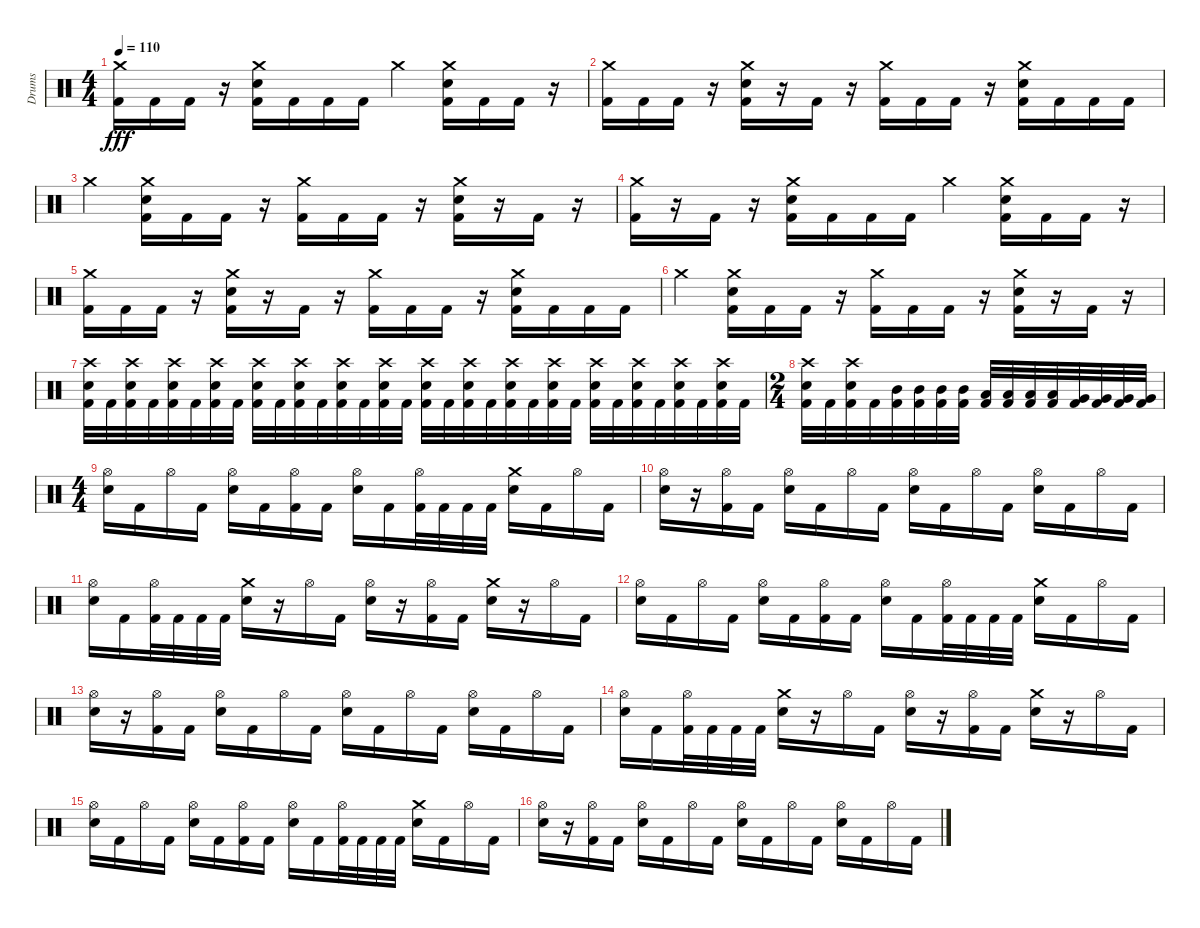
\track ("Drums" "Drums") {instrument percussion}
\staff {score}
\articulation defaults
\ts (4 4)
\tempo 110
\clef neutral
\ks c
("Crash medium (hit)" "Kick (hit) 2").16{dy fff} "Kick (hit) 2".16 "Kick (hit) 2".16 r.16 ("Crash medium (hit)" "Snare (hit) 2" "Kick (hit) 2").16 "Kick (hit) 2".16 "Kick (hit) 2".16 "Kick (hit) 2".16 "Crash medium (hit)".4 ("Crash medium (hit)" "Snare (hit) 2" "Kick (hit) 2").16 "Kick (hit) 2".16 "Kick (hit) 2".16 r.16 |
("Crash medium (hit)" "Kick (hit) 2").16 "Kick (hit) 2".16 "Kick (hit) 2".16 r.16 ("Crash medium (hit)" "Snare (hit) 2" "Kick (hit) 2").16 r.16 "Kick (hit) 2".16 r.16 ("Crash medium (hit)" "Kick (hit) 2").16 "Kick (hit) 2".16 "Kick (hit) 2".16 r.16 ("Crash medium (hit)" "Snare (hit) 2" "Kick (hit) 2").16 "Kick (hit) 2".16 "Kick (hit) 2".16 "Kick (hit) 2".16 |
"Crash medium (hit)".4 ("Crash medium (hit)" "Snare (hit) 2" "Kick (hit) 2").16 "Kick (hit) 2".16 "Kick (hit) 2".16 r.16 ("Crash medium (hit)" "Kick (hit) 2").16 "Kick (hit) 2".16 "Kick (hit) 2".16 r.16 ("Crash medium (hit)" "Snare (hit) 2" "Kick (hit) 2").16 r.16 "Kick (hit) 2".16 r.16 |
("Crash medium (hit)" "Kick (hit) 2").16 r.16 "Kick (hit) 2".16 r.16 ("Crash medium (hit)" "Snare (hit) 2" "Kick (hit) 2").16 "Kick (hit) 2".16 "Kick (hit) 2".16 "Kick (hit) 2".16 "Crash medium (hit)".4 ("Crash medium (hit)" "Snare (hit) 2" "Kick (hit) 2").16 "Kick (hit) 2".16 "Kick (hit) 2".16 r.16 |
("Crash medium (hit)" "Kick (hit) 2").16 "Kick (hit) 2".16 "Kick (hit) 2".16 r.16 ("Crash medium (hit)" "Snare (hit) 2" "Kick (hit) 2").16 r.16 "Kick (hit) 2".16 r.16 ("Crash medium (hit)" "Kick (hit) 2").16 "Kick (hit) 2".16 "Kick (hit) 2".16 r.16 ("Crash medium (hit)" "Snare (hit) 2" "Kick (hit) 2").16 "Kick (hit) 2".16 "Kick (hit) 2".16 "Kick (hit) 2".16 |
"Crash medium (hit)".4 ("Crash medium (hit)" "Snare (hit) 2" "Kick (hit) 2").16 "Kick (hit) 2".16 "Kick (hit) 2".16 r.16 ("Crash medium (hit)" "Kick (hit) 2").16 "Kick (hit) 2".16 "Kick (hit) 2".16 r.16 ("Crash medium (hit)" "Snare (hit) 2" "Kick (hit) 2").16 r.16 "Kick (hit) 2".16 r.16 |
("Crash high (hit)" "Snare (hit) 2" "Kick (hit) 2").32 "Kick (hit) 2".32 ("Crash high (hit)" "Snare (hit) 2" "Kick (hit) 2").32 "Kick (hit) 2".32 ("Crash high (hit)" "Snare (hit) 2" "Kick (hit) 2").32 "Kick (hit) 2".32 ("Crash high (hit)" "Snare (hit) 2" "Kick (hit) 2").32 "Kick (hit) 2".32 ("Crash high (hit)" "Snare (hit) 2" "Kick (hit) 2").32 "Kick (hit) 2".32 ("Crash high (hit)" "Snare (hit) 2" "Kick (hit) 2").32 "Kick (hit) 2".32 ("Crash high (hit)" "Snare (hit) 2" "Kick (hit) 2").32 "Kick (hit) 2".32 ("Crash high (hit)" "Snare (hit) 2" "Kick (hit) 2").32 "Kick (hit) 2".32 ("Crash high (hit)" "Snare (hit) 2" "Kick (hit) 2").32 "Kick (hit) 2".32 ("Crash high (hit)" "Snare (hit) 2" "Kick (hit) 2").32 "Kick (hit) 2".32 ("Crash high (hit)" "Snare (hit) 2" "Kick (hit) 2").32 "Kick (hit) 2".32 ("Crash high (hit)" "Snare (hit) 2" "Kick (hit) 2").32 "Kick (hit) 2".32 ("Crash high (hit)" "Snare (hit) 2" "Kick (hit) 2").32 "Kick (hit) 2".32 ("Crash high (hit)" "Snare (hit) 2" "Kick (hit) 2").32 "Kick (hit) 2".32 ("Crash high (hit)" "Snare (hit) 2" "Kick (hit) 2").32 "Kick (hit) 2".32 ("Crash high (hit)" "Snare (hit) 2" "Kick (hit) 2").32 "Kick (hit) 2".32 |
\ts (2 4)
("Crash high (hit)" "Snare (hit) 2" "Kick (hit) 2").32 "Kick (hit) 2".32 ("Crash high (hit)" "Snare (hit) 2" "Kick (hit) 2").32 "Kick (hit) 2".32 ("Mid Tom (hit)" "Kick (hit) 2").32 ("Mid Tom (hit)" "Kick (hit) 2").32 ("Mid Tom (hit)" "Kick (hit) 2").32 ("Mid Tom (hit)" "Kick (hit) 2").32 ("Low Tom (hit)" "Kick (hit) 2").32 ("Low Tom (hit)" "Kick (hit) 2").32 ("Low Tom (hit)" "Kick (hit) 2").32 ("Low Tom (hit)" "Kick (hit) 2").32 ("Very Low Tom (hit)" "Kick (hit) 2").32 ("Very Low Tom (hit)" "Kick (hit) 2").32 ("Very Low Tom (hit)" "Kick (hit) 2").32 ("Very Low Tom (hit)" "Kick (hit) 2").32 |
\ts (4 4)
("Hi-Hat (open)" "Snare (hit) 2").16 "Kick (hit) 2".16 "Hi-Hat (open)".16 "Kick (hit) 2".16 ("Hi-Hat (open)" "Snare (hit) 2").16 "Kick (hit) 2".16 ("Hi-Hat (open)" "Kick (hit) 2").16 "Kick (hit) 2".16 ("Hi-Hat (open)" "Snare (hit) 2").16 "Kick (hit) 2".16 ("Hi-Hat (open)" "Kick (hit) 2").32 "Kick (hit) 2".32 "Kick (hit) 2".32 "Kick (hit) 2".32 ("Crash medium (hit)" "Snare (hit) 2").16 "Kick (hit) 2".16 "Hi-Hat (open)".16 "Kick (hit) 2".16 |
("Hi-Hat (open)" "Snare (hit) 2").16 r.16 ("Hi-Hat (open)" "Kick (hit) 2").16 "Kick (hit) 2".16 ("Hi-Hat (open)" "Snare (hit) 2").16 "Kick (hit) 2".16 "Hi-Hat (open)".16 "Kick (hit) 2".16 ("Hi-Hat (open)" "Snare (hit) 2").16 "Kick (hit) 2".16 "Hi-Hat (open)".16 "Kick (hit) 2".16 ("Hi-Hat (open)" "Snare (hit) 2").16 "Kick (hit) 2".16 "Hi-Hat (open)".16 "Kick (hit) 2".16 |
("Hi-Hat (open)" "Snare (hit) 2").16 "Kick (hit) 2".16 ("Hi-Hat (open)" "Kick (hit) 2").32 "Kick (hit) 2".32 "Kick (hit) 2".32 "Kick (hit) 2".32 ("Crash medium (hit)" "Snare (hit) 2").16 r.16 "Hi-Hat (open)".16 "Kick (hit) 2".16 ("Hi-Hat (open)" "Snare (hit) 2").16 r.16 ("Hi-Hat (open)" "Kick (hit) 2").16 "Kick (hit) 2".16 ("Crash medium (hit)" "Snare (hit) 2").16 r.16 "Hi-Hat (open)".16 "Kick (hit) 2".16 |
("Hi-Hat (open)" "Snare (hit) 2").16 "Kick (hit) 2".16 "Hi-Hat (open)".16 "Kick (hit) 2".16 ("Hi-Hat (open)" "Snare (hit) 2").16 "Kick (hit) 2".16 ("Hi-Hat (open)" "Kick (hit) 2").16 "Kick (hit) 2".16 ("Hi-Hat (open)" "Snare (hit) 2").16 "Kick (hit) 2".16 ("Hi-Hat (open)" "Kick (hit) 2").32 "Kick (hit) 2".32 "Kick (hit) 2".32 "Kick (hit) 2".32 ("Crash medium (hit)" "Snare (hit) 2").16 "Kick (hit) 2".16 "Hi-Hat (open)".16 "Kick (hit) 2".16 |
("Hi-Hat (open)" "Snare (hit) 2").16 r.16 ("Hi-Hat (open)" "Kick (hit) 2").16 "Kick (hit) 2".16 ("Hi-Hat (open)" "Snare (hit) 2").16 "Kick (hit) 2".16 "Hi-Hat (open)".16 "Kick (hit) 2".16 ("Hi-Hat (open)" "Snare (hit) 2").16 "Kick (hit) 2".16 "Hi-Hat (open)".16 "Kick (hit) 2".16 ("Hi-Hat (open)" "Snare (hit) 2").16 "Kick (hit) 2".16 "Hi-Hat (open)".16 "Kick (hit) 2".16 |
("Hi-Hat (open)" "Snare (hit) 2").16 "Kick (hit) 2".16 ("Hi-Hat (open)" "Kick (hit) 2").32 "Kick (hit) 2".32 "Kick (hit) 2".32 "Kick (hit) 2".32 ("Crash medium (hit)" "Snare (hit) 2").16 r.16 "Hi-Hat (open)".16 "Kick (hit) 2".16 ("Hi-Hat (open)" "Snare (hit) 2").16 r.16 ("Hi-Hat (open)" "Kick (hit) 2").16 "Kick (hit) 2".16 ("Crash medium (hit)" "Snare (hit) 2").16 r.16 "Hi-Hat (open)".16 "Kick (hit) 2".16 |
("Hi-Hat (open)" "Snare (hit) 2").16 "Kick (hit) 2".16 "Hi-Hat (open)".16 "Kick (hit) 2".16 ("Hi-Hat (open)" "Snare (hit) 2").16 "Kick (hit) 2".16 ("Hi-Hat (open)" "Kick (hit) 2").16 "Kick (hit) 2".16 ("Hi-Hat (open)" "Snare (hit) 2").16 "Kick (hit) 2".16 ("Hi-Hat (open)" "Kick (hit) 2").32 "Kick (hit) 2".32 "Kick (hit) 2".32 "Kick (hit) 2".32 ("Crash medium (hit)" "Snare (hit) 2").16 "Kick (hit) 2".16 "Hi-Hat (open)".16 "Kick (hit) 2".16 |
("Hi-Hat (open)" "Snare (hit) 2").16 r.16 ("Hi-Hat (open)" "Kick (hit) 2").16 "Kick (hit) 2".16 ("Hi-Hat (open)" "Snare (hit) 2").16 "Kick (hit) 2".16 "Hi-Hat (open)".16 "Kick (hit) 2".16 ("Hi-Hat (open)" "Snare (hit) 2").16 "Kick (hit) 2".16 "Hi-Hat (open)".16 "Kick (hit) 2".16 ("Hi-Hat (open)" "Snare (hit) 2").16 "Kick (hit) 2".16 "Hi-Hat (open)".16 "Kick (hit) 2".16
